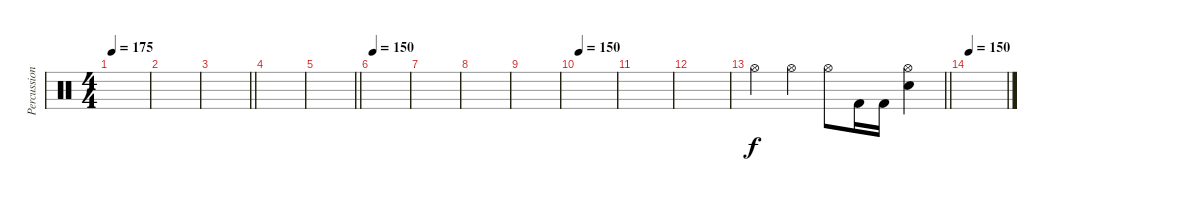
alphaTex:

\track ("Percussioni" "Percussion") {instrument percussion}
\staff {score}
\articulation defaults
\ts (4 4)
\tempo 175
\clef neutral
\ks c
|
|
\barLineRight lightlight
|
\section ("" "")
|
\barLineRight lightlight
|
\section ("" "")
\tempo 150
|
|
|
|
\tempo 150
|
|
|
\barLineRight lightlight "Hi-Hat (open)".4 "Hi-Hat (open)".4 "Hi-Hat (open)".8 "Kick (hit) 2".16 "Kick (hit) 2".16
("Hi-Hat (open)" "Electric Snare (hit)").4 |
\section ("" "")
\tempo 150
